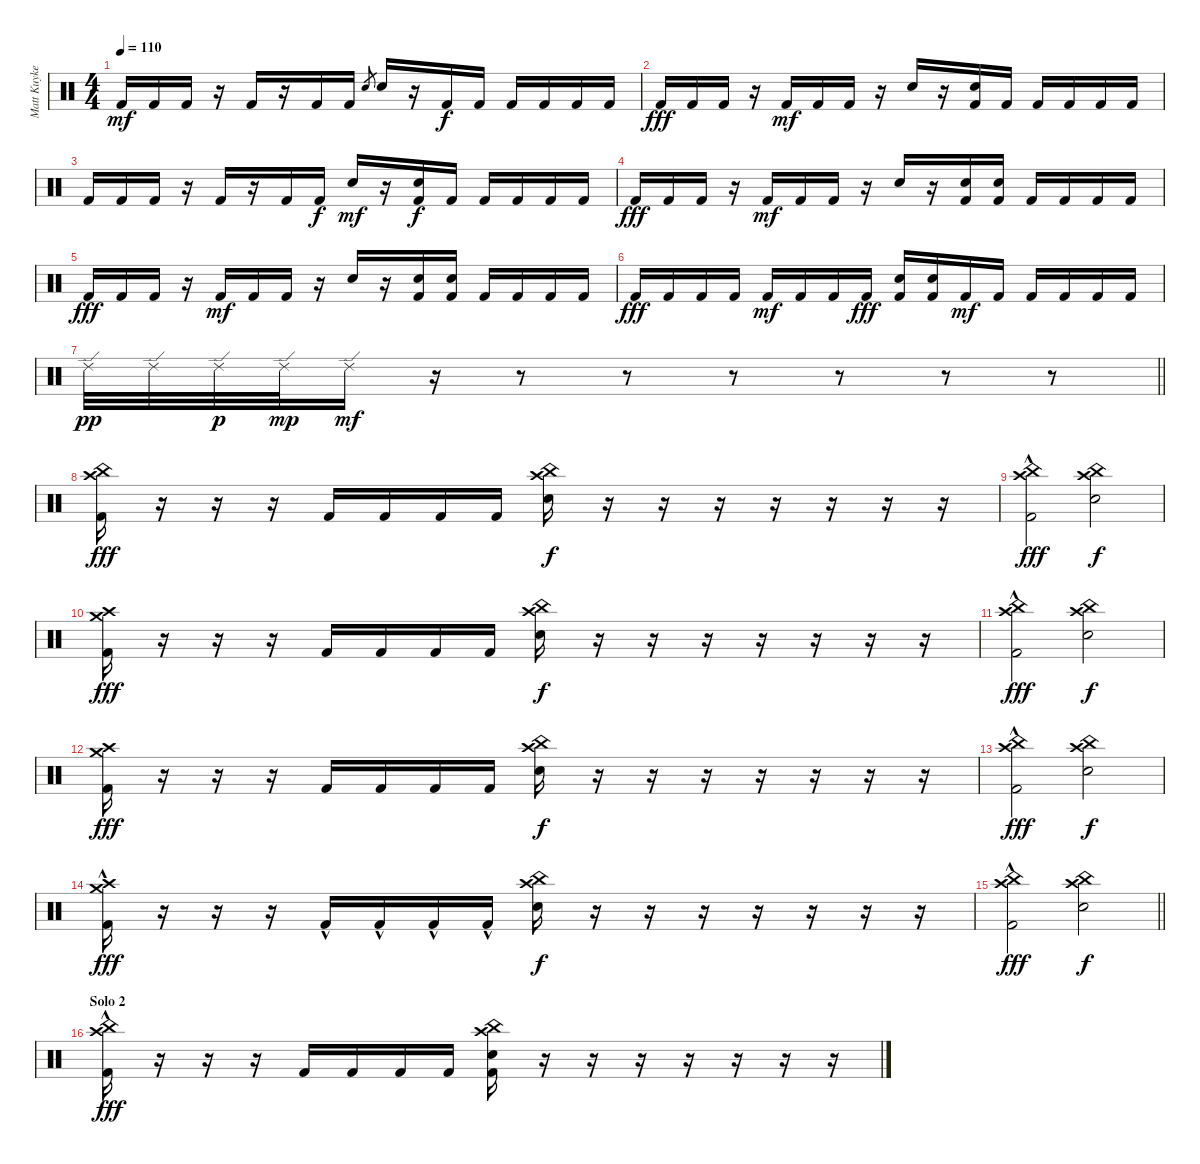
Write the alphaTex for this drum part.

\track ("Matt Kuykendall" "Matt Kuyke") {instrument percussion}
\staff {score}
\articulation defaults
\ts (4 4)
\tempo 110
\clef neutral
\ks c "Kick (hit) 2".16{dy mf} "Kick (hit) 2".16 "Kick (hit) 2".16
r.16 "Kick (hit) 2".16 r.16 "Kick (hit) 2".16 "Kick (hit) 2".16 "Electric Snare (hit)".8{gr} "Electric Snare (hit)".16 r.16 "Kick (hit) 2".16{dy f} "Kick (hit) 2".16 "Kick (hit) 2".16 "Kick (hit) 2".16 "Kick (hit) 2".16 "Kick (hit) 2".16 |
"Kick (hit) 2".16{dy fff} "Kick (hit) 2".16 "Kick (hit) 2".16 r.16 "Kick (hit) 2".16{dy mf} "Kick (hit) 2".16 "Kick (hit) 2".16 r.16 "Electric Snare (hit)".16 r.16 ("Electric Snare (hit)" "Kick (hit) 2").16 "Kick (hit) 2".16 "Kick (hit) 2".16 "Kick (hit) 2".16 "Kick (hit) 2".16 "Kick (hit) 2".16 |
"Kick (hit) 2".16 "Kick (hit) 2".16 "Kick (hit) 2".16 r.16 "Kick (hit) 2".16 r.16 "Kick (hit) 2".16 "Kick (hit) 2".16{dy f} "Electric Snare (hit)".16{dy mf} r.16 ("Electric Snare (hit)" "Kick (hit) 2").16{dy f} "Kick (hit) 2".16 "Kick (hit) 2".16 "Kick (hit) 2".16 "Kick (hit) 2".16 "Kick (hit) 2".16 |
"Kick (hit) 2".16{dy fff} "Kick (hit) 2".16 "Kick (hit) 2".16 r.16 "Kick (hit) 2".16{dy mf} "Kick (hit) 2".16 "Kick (hit) 2".16 r.16 "Electric Snare (hit)".16 r.16 ("Electric Snare (hit)" "Kick (hit) 2").16 ("Electric Snare (hit)" "Kick (hit) 2").16 "Kick (hit) 2".16 "Kick (hit) 2".16 "Kick (hit) 2".16 "Kick (hit) 2".16 |
"Kick (hit) 2".16{dy fff} "Kick (hit) 2".16 "Kick (hit) 2".16 r.16 "Kick (hit) 2".16{dy mf} "Kick (hit) 2".16 "Kick (hit) 2".16 r.16 "Electric Snare (hit)".16 r.16 ("Electric Snare (hit)" "Kick (hit) 2").16 ("Electric Snare (hit)" "Kick (hit) 2").16 "Kick (hit) 2".16 "Kick (hit) 2".16 "Kick (hit) 2".16 "Kick (hit) 2".16 |
"Kick (hit) 2".16{dy fff} "Kick (hit) 2".16 "Kick (hit) 2".16 "Kick (hit) 2".16 "Kick (hit) 2".16{dy mf} "Kick (hit) 2".16 "Kick (hit) 2".16 "Kick (hit) 2".16{dy fff} ("Electric Snare (hit)" "Kick (hit) 2").16 ("Electric Snare (hit)" "Kick (hit) 2").16 "Kick (hit) 2".16{dy mf} "Kick (hit) 2".16 "Kick (hit) 2".16 "Kick (hit) 2".16 "Kick (hit) 2".16 "Kick (hit) 2".16 |
\barLineRight lightlight "Ride (edge) 2".32{dy pp} "Ride (edge) 2".32 "Ride (edge) 2".32{dy p} "Ride (edge) 2".32{dy mp} "Ride (edge) 2".16{dy mf}
r.16 r.8 r.8 r.8 r.8 r.8 r.8 |
("Crash high (hit)" "China (hit)" "Kick (hit) 2").16{dy fff} r.16 r.16 r.16 "Kick (hit) 2".16 "Kick (hit) 2".16 "Kick (hit) 2".16 "Kick (hit) 2".16 ("Crash high (hit)" "China (hit)" "Electric Snare (hit)").16{dy f} r.16 r.16 r.16 r.16 r.16 r.16 r.16 |
("Crash high (hit)" "China (hit)" "Kick (hit) 2"{hac}).2{dy fff} ("Crash high (hit)" "China (hit)" "Electric Snare (hit)").2{dy f} |
("Crash high (hit)" "Crash medium (hit)" "Kick (hit) 2").16{dy fff} r.16 r.16 r.16 "Kick (hit) 2".16 "Kick (hit) 2".16 "Kick (hit) 2".16 "Kick (hit) 2".16 ("Crash high (hit)" "China (hit)" "Electric Snare (hit)").16{dy f} r.16 r.16 r.16 r.16 r.16 r.16 r.16 |
("Crash high (hit)" "China (hit)" "Kick (hit) 2"{hac}).2{dy fff} ("Crash high (hit)" "China (hit)" "Electric Snare (hit)").2{dy f} |
("Crash high (hit)" "Crash medium (hit)" "Kick (hit) 2").16{dy fff} r.16 r.16 r.16 "Kick (hit) 2".16 "Kick (hit) 2".16 "Kick (hit) 2".16 "Kick (hit) 2".16 ("Crash high (hit)" "China (hit)" "Electric Snare (hit)").16{dy f} r.16 r.16 r.16 r.16 r.16 r.16 r.16 |
("China (hit)" "Crash high (hit)" "Kick (hit) 2"{hac}).2{dy fff} ("China (hit)" "Crash high (hit)" "Electric Snare (hit)").2{dy f} |
("Crash high (hit)" "Crash medium (hit)" "Kick (hit) 2"{hac}).16{dy fff} r.16 r.16 r.16 "Kick (hit) 2"{hac}.16 "Kick (hit) 2"{hac}.16 "Kick (hit) 2"{hac}.16 "Kick (hit) 2"{hac}.16 ("Crash high (hit)" "China (hit)" "Electric Snare (hit)").16{dy f} r.16 r.16 r.16 r.16 r.16 r.16 r.16 |
\barLineRight lightlight
("China (hit)" "Crash high (hit)" "Kick (hit) 2"{hac}).2{dy fff} ("China (hit)" "Crash high (hit)" "Electric Snare (hit)").2{dy f} |
\section ("" "Solo 2")
("Crash high (hit)" "China (hit)" "Kick (hit) 2"{hac}).16{dy fff} r.16 r.16 r.16 "Kick (hit) 2".16 "Kick (hit) 2".16 "Kick (hit) 2".16 "Kick (hit) 2".16 ("Crash high (hit)" "China (hit)" "Electric Snare (hit)" "Kick (hit) 2").16 r.16 r.16 r.16 r.16 r.16 r.16 r.16
